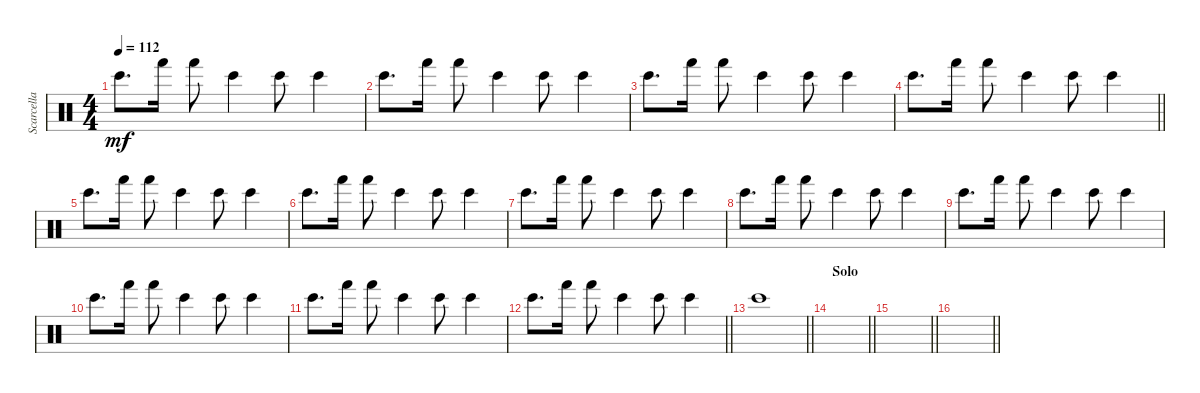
\track ("Scarcella" "Scarcella") {instrument percussion}
\staff {score}
\articulation defaults
\ts (4 4)
\tempo 112
\clef neutral
\ks c "Bongo High (hit)".8{d dy mf} "Hand (hit)".16 "Hand (hit)".8 "Bongo High (hit)".4 "Bongo High (hit)".8 "Bongo High (hit)".4
|
"Bongo High (hit)".8{d} "Hand (hit)".16 "Hand (hit)".8 "Bongo High (hit)".4 "Bongo High (hit)".8 "Bongo High (hit)".4 |
"Bongo High (hit)".8{d} "Hand (hit)".16 "Hand (hit)".8 "Bongo High (hit)".4 "Bongo High (hit)".8 "Bongo High (hit)".4 |
\barLineRight lightlight "Bongo High (hit)".8{d} "Hand (hit)".16 "Hand (hit)".8 "Bongo High (hit)".4 "Bongo High (hit)".8 "Bongo High (hit)".4
|
"Bongo High (hit)".8{d} "Hand (hit)".16 "Hand (hit)".8 "Bongo High (hit)".4 "Bongo High (hit)".8 "Bongo High (hit)".4 |
"Bongo High (hit)".8{d} "Hand (hit)".16 "Hand (hit)".8 "Bongo High (hit)".4 "Bongo High (hit)".8 "Bongo High (hit)".4 |
"Bongo High (hit)".8{d} "Hand (hit)".16 "Hand (hit)".8 "Bongo High (hit)".4 "Bongo High (hit)".8 "Bongo High (hit)".4 |
"Bongo High (hit)".8{d} "Hand (hit)".16 "Hand (hit)".8 "Bongo High (hit)".4 "Bongo High (hit)".8 "Bongo High (hit)".4 |
"Bongo High (hit)".8{d} "Hand (hit)".16 "Hand (hit)".8 "Bongo High (hit)".4 "Bongo High (hit)".8 "Bongo High (hit)".4 |
"Bongo High (hit)".8{d} "Hand (hit)".16 "Hand (hit)".8 "Bongo High (hit)".4 "Bongo High (hit)".8 "Bongo High (hit)".4 |
"Bongo High (hit)".8{d} "Hand (hit)".16 "Hand (hit)".8 "Bongo High (hit)".4 "Bongo High (hit)".8 "Bongo High (hit)".4 |
\barLineRight lightlight "Bongo High (hit)".8{d} "Hand (hit)".16 "Hand (hit)".8 "Bongo High (hit)".4 "Bongo High (hit)".8 "Bongo High (hit)".4
|
\barLineRight lightlight "Bongo High (hit)".1
|
\section ("" "Solo")
\barLineRight lightlight
|
\barLineRight lightlight
|
\barLineRight lightlight
